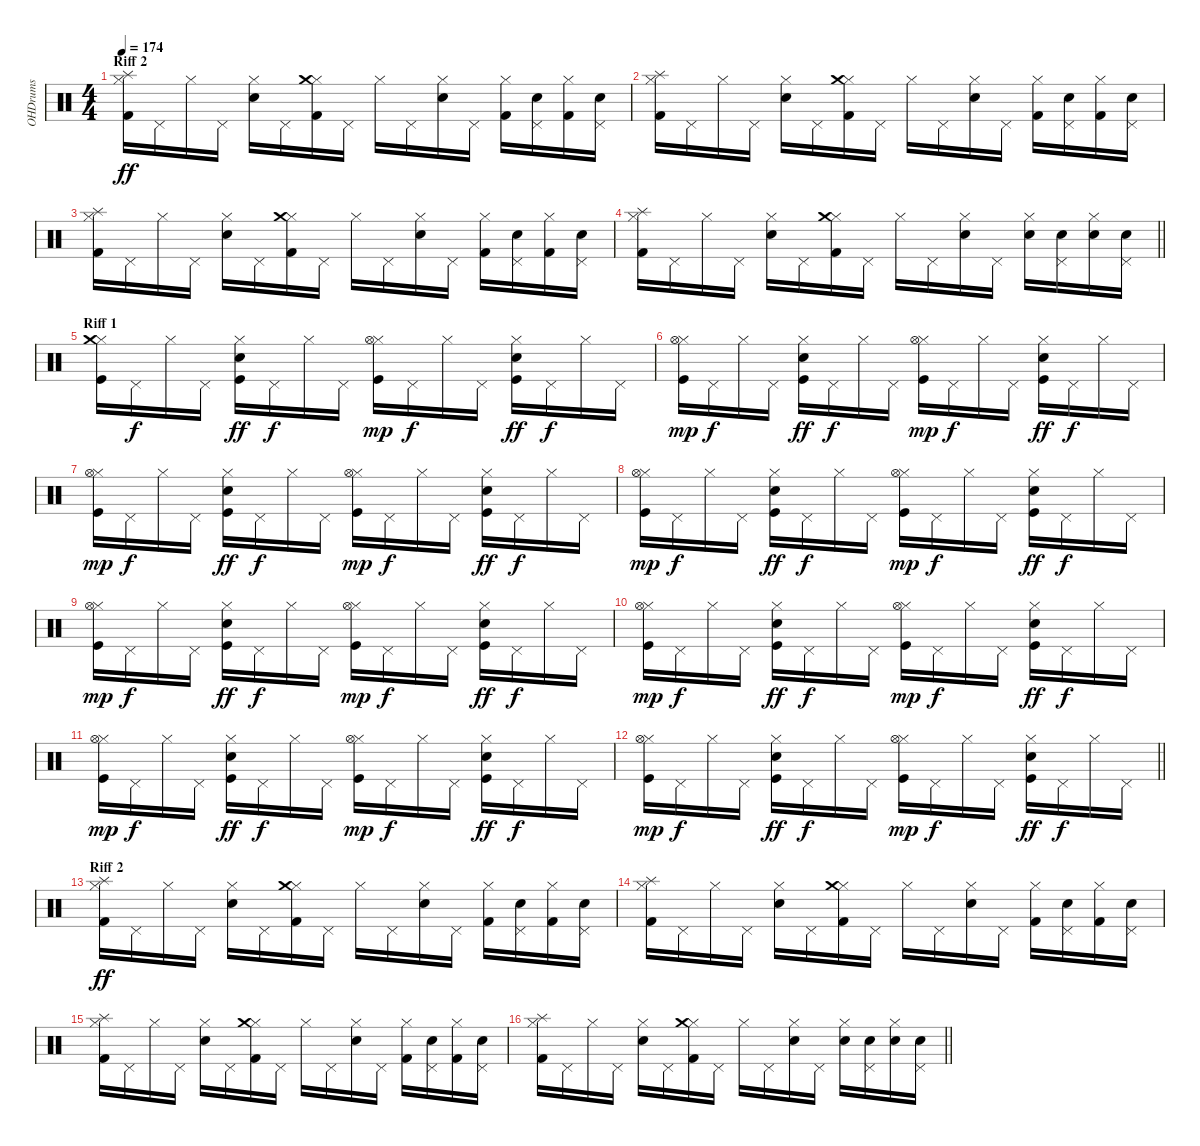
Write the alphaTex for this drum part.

\track ("OHDrums" "OHDrums") {instrument percussion}
\staff {score}
\articulation defaults
\ts (4 4)
\section ("" "Riff 2")
\tempo 174
\clef neutral
\ks c
("Kick (hit) 2" "Hi-Hat (closed)" "Splash (hit)").16{dy ff} "Pedal Hi-Hat (hit)".16 "Hi-Hat (closed)".16 "Pedal Hi-Hat (hit)".16 ("Electric Snare (hit)" "Hi-Hat (closed)").16 "Pedal Hi-Hat (hit)".16 ("Kick (hit) 2" "Hi-Hat (closed)" "Crash medium (hit)").16 "Pedal Hi-Hat (hit)".16 "Hi-Hat (closed)".16 "Pedal Hi-Hat (hit)".16 ("Electric Snare (hit)" "Hi-Hat (closed)").16 "Pedal Hi-Hat (hit)".16 ("Kick (hit) 2" "Hi-Hat (closed)").16 ("Electric Snare (hit)" "Pedal Hi-Hat (hit)").16 ("Kick (hit) 2" "Hi-Hat (closed)").16 ("Electric Snare (hit)" "Pedal Hi-Hat (hit)").16 |
("Kick (hit) 2" "Hi-Hat (closed)" "Splash (hit)").16 "Pedal Hi-Hat (hit)".16 "Hi-Hat (closed)".16 "Pedal Hi-Hat (hit)".16 ("Electric Snare (hit)" "Hi-Hat (closed)").16 "Pedal Hi-Hat (hit)".16 ("Kick (hit) 2" "Hi-Hat (closed)" "Crash medium (hit)").16 "Pedal Hi-Hat (hit)".16 "Hi-Hat (closed)".16 "Pedal Hi-Hat (hit)".16 ("Electric Snare (hit)" "Hi-Hat (closed)").16 "Pedal Hi-Hat (hit)".16 ("Kick (hit) 2" "Hi-Hat (closed)").16 ("Electric Snare (hit)" "Pedal Hi-Hat (hit)").16 ("Kick (hit) 2" "Hi-Hat (closed)").16 ("Electric Snare (hit)" "Pedal Hi-Hat (hit)").16 |
("Kick (hit) 2" "Hi-Hat (closed)" "Splash (hit)").16 "Pedal Hi-Hat (hit)".16 "Hi-Hat (closed)".16 "Pedal Hi-Hat (hit)".16 ("Electric Snare (hit)" "Hi-Hat (closed)").16 "Pedal Hi-Hat (hit)".16 ("Kick (hit) 2" "Hi-Hat (closed)" "Crash medium (hit)").16 "Pedal Hi-Hat (hit)".16 "Hi-Hat (closed)".16 "Pedal Hi-Hat (hit)".16 ("Electric Snare (hit)" "Hi-Hat (closed)").16 "Pedal Hi-Hat (hit)".16 ("Kick (hit) 2" "Hi-Hat (closed)").16 ("Electric Snare (hit)" "Pedal Hi-Hat (hit)").16 ("Kick (hit) 2" "Hi-Hat (closed)").16 ("Electric Snare (hit)" "Pedal Hi-Hat (hit)").16 |
\barLineRight lightlight
("Kick (hit) 2" "Hi-Hat (closed)" "Splash (hit)").16 "Pedal Hi-Hat (hit)".16 "Hi-Hat (closed)".16 "Pedal Hi-Hat (hit)".16 ("Electric Snare (hit)" "Hi-Hat (closed)").16 "Pedal Hi-Hat (hit)".16 ("Kick (hit) 2" "Hi-Hat (closed)" "Crash medium (hit)").16 "Pedal Hi-Hat (hit)".16 "Hi-Hat (closed)".16 "Pedal Hi-Hat (hit)".16 ("Electric Snare (hit)" "Hi-Hat (closed)").16 "Pedal Hi-Hat (hit)".16 ("Electric Snare (hit)" "Hi-Hat (closed)").16 ("Electric Snare (hit)" "Pedal Hi-Hat (hit)").16 ("Electric Snare (hit)" "Hi-Hat (closed)").16 ("Electric Snare (hit)" "Pedal Hi-Hat (hit)").16 |
\section ("" "Riff 1")
("Kick (hit)" "Hi-Hat (closed)" "Crash medium (hit)").16 "Pedal Hi-Hat (hit)".16{dy f} "Hi-Hat (closed)".16 "Pedal Hi-Hat (hit)".16 ("Kick (hit)" "Electric Snare (hit)" "Hi-Hat (closed)").16{dy ff} "Pedal Hi-Hat (hit)".16{dy f} "Hi-Hat (closed)".16 "Pedal Hi-Hat (hit)".16 ("Kick (hit)" "Hi-Hat (closed)" "Hi-Hat (open)").16{dy mp} "Pedal Hi-Hat (hit)".16{dy f} "Hi-Hat (closed)".16 "Pedal Hi-Hat (hit)".16 ("Kick (hit)" "Electric Snare (hit)" "Hi-Hat (closed)").16{dy ff} "Pedal Hi-Hat (hit)".16{dy f} "Hi-Hat (closed)".16 "Pedal Hi-Hat (hit)".16 |
("Kick (hit)" "Hi-Hat (closed)" "Hi-Hat (open)").16{dy mp} "Pedal Hi-Hat (hit)".16{dy f} "Hi-Hat (closed)".16 "Pedal Hi-Hat (hit)".16 ("Kick (hit)" "Electric Snare (hit)" "Hi-Hat (closed)").16{dy ff} "Pedal Hi-Hat (hit)".16{dy f} "Hi-Hat (closed)".16 "Pedal Hi-Hat (hit)".16 ("Kick (hit)" "Hi-Hat (closed)" "Hi-Hat (open)").16{dy mp} "Pedal Hi-Hat (hit)".16{dy f} "Hi-Hat (closed)".16 "Pedal Hi-Hat (hit)".16 ("Kick (hit)" "Electric Snare (hit)" "Hi-Hat (closed)").16{dy ff} "Pedal Hi-Hat (hit)".16{dy f} "Hi-Hat (closed)".16 "Pedal Hi-Hat (hit)".16 |
("Kick (hit)" "Hi-Hat (closed)" "Hi-Hat (open)").16{dy mp} "Pedal Hi-Hat (hit)".16{dy f} "Hi-Hat (closed)".16 "Pedal Hi-Hat (hit)".16 ("Kick (hit)" "Electric Snare (hit)" "Hi-Hat (closed)").16{dy ff} "Pedal Hi-Hat (hit)".16{dy f} "Hi-Hat (closed)".16 "Pedal Hi-Hat (hit)".16 ("Kick (hit)" "Hi-Hat (closed)" "Hi-Hat (open)").16{dy mp} "Pedal Hi-Hat (hit)".16{dy f} "Hi-Hat (closed)".16 "Pedal Hi-Hat (hit)".16 ("Kick (hit)" "Electric Snare (hit)" "Hi-Hat (closed)").16{dy ff} "Pedal Hi-Hat (hit)".16{dy f} "Hi-Hat (closed)".16 "Pedal Hi-Hat (hit)".16 |
("Kick (hit)" "Hi-Hat (closed)" "Hi-Hat (open)").16{dy mp} "Pedal Hi-Hat (hit)".16{dy f} "Hi-Hat (closed)".16 "Pedal Hi-Hat (hit)".16 ("Kick (hit)" "Electric Snare (hit)" "Hi-Hat (closed)").16{dy ff} "Pedal Hi-Hat (hit)".16{dy f} "Hi-Hat (closed)".16 "Pedal Hi-Hat (hit)".16 ("Kick (hit)" "Hi-Hat (closed)" "Hi-Hat (open)").16{dy mp} "Pedal Hi-Hat (hit)".16{dy f} "Hi-Hat (closed)".16 "Pedal Hi-Hat (hit)".16 ("Kick (hit)" "Electric Snare (hit)" "Hi-Hat (closed)").16{dy ff} "Pedal Hi-Hat (hit)".16{dy f} "Hi-Hat (closed)".16 "Pedal Hi-Hat (hit)".16 |
("Kick (hit)" "Hi-Hat (closed)" "Hi-Hat (open)").16{dy mp} "Pedal Hi-Hat (hit)".16{dy f} "Hi-Hat (closed)".16 "Pedal Hi-Hat (hit)".16 ("Kick (hit)" "Electric Snare (hit)" "Hi-Hat (closed)").16{dy ff} "Pedal Hi-Hat (hit)".16{dy f} "Hi-Hat (closed)".16 "Pedal Hi-Hat (hit)".16 ("Kick (hit)" "Hi-Hat (closed)" "Hi-Hat (open)").16{dy mp} "Pedal Hi-Hat (hit)".16{dy f} "Hi-Hat (closed)".16 "Pedal Hi-Hat (hit)".16 ("Kick (hit)" "Electric Snare (hit)" "Hi-Hat (closed)").16{dy ff} "Pedal Hi-Hat (hit)".16{dy f} "Hi-Hat (closed)".16 "Pedal Hi-Hat (hit)".16 |
("Kick (hit)" "Hi-Hat (closed)" "Hi-Hat (open)").16{dy mp} "Pedal Hi-Hat (hit)".16{dy f} "Hi-Hat (closed)".16 "Pedal Hi-Hat (hit)".16 ("Kick (hit)" "Electric Snare (hit)" "Hi-Hat (closed)").16{dy ff} "Pedal Hi-Hat (hit)".16{dy f} "Hi-Hat (closed)".16 "Pedal Hi-Hat (hit)".16 ("Kick (hit)" "Hi-Hat (closed)" "Hi-Hat (open)").16{dy mp} "Pedal Hi-Hat (hit)".16{dy f} "Hi-Hat (closed)".16 "Pedal Hi-Hat (hit)".16 ("Kick (hit)" "Electric Snare (hit)" "Hi-Hat (closed)").16{dy ff} "Pedal Hi-Hat (hit)".16{dy f} "Hi-Hat (closed)".16 "Pedal Hi-Hat (hit)".16 |
("Kick (hit)" "Hi-Hat (closed)" "Hi-Hat (open)").16{dy mp} "Pedal Hi-Hat (hit)".16{dy f} "Hi-Hat (closed)".16 "Pedal Hi-Hat (hit)".16 ("Kick (hit)" "Electric Snare (hit)" "Hi-Hat (closed)").16{dy ff} "Pedal Hi-Hat (hit)".16{dy f} "Hi-Hat (closed)".16 "Pedal Hi-Hat (hit)".16 ("Kick (hit)" "Hi-Hat (closed)" "Hi-Hat (open)").16{dy mp} "Pedal Hi-Hat (hit)".16{dy f} "Hi-Hat (closed)".16 "Pedal Hi-Hat (hit)".16 ("Kick (hit)" "Electric Snare (hit)" "Hi-Hat (closed)").16{dy ff} "Pedal Hi-Hat (hit)".16{dy f} "Hi-Hat (closed)".16 "Pedal Hi-Hat (hit)".16 |
\barLineRight lightlight
("Kick (hit)" "Hi-Hat (closed)" "Hi-Hat (open)").16{dy mp} "Pedal Hi-Hat (hit)".16{dy f} "Hi-Hat (closed)".16 "Pedal Hi-Hat (hit)".16 ("Kick (hit)" "Electric Snare (hit)" "Hi-Hat (closed)").16{dy ff} "Pedal Hi-Hat (hit)".16{dy f} "Hi-Hat (closed)".16 "Pedal Hi-Hat (hit)".16 ("Kick (hit)" "Hi-Hat (closed)" "Hi-Hat (open)").16{dy mp} "Pedal Hi-Hat (hit)".16{dy f} "Hi-Hat (closed)".16 "Pedal Hi-Hat (hit)".16 ("Kick (hit)" "Electric Snare (hit)" "Hi-Hat (closed)").16{dy ff} "Pedal Hi-Hat (hit)".16{dy f} "Hi-Hat (closed)".16 "Pedal Hi-Hat (hit)".16 |
\section ("" "Riff 2")
("Kick (hit) 2" "Hi-Hat (closed)" "Splash (hit)").16{dy ff} "Pedal Hi-Hat (hit)".16 "Hi-Hat (closed)".16 "Pedal Hi-Hat (hit)".16 ("Electric Snare (hit)" "Hi-Hat (closed)").16 "Pedal Hi-Hat (hit)".16 ("Kick (hit) 2" "Hi-Hat (closed)" "Crash medium (hit)").16 "Pedal Hi-Hat (hit)".16 "Hi-Hat (closed)".16 "Pedal Hi-Hat (hit)".16 ("Electric Snare (hit)" "Hi-Hat (closed)").16 "Pedal Hi-Hat (hit)".16 ("Kick (hit) 2" "Hi-Hat (closed)").16 ("Electric Snare (hit)" "Pedal Hi-Hat (hit)").16 ("Kick (hit) 2" "Hi-Hat (closed)").16 ("Electric Snare (hit)" "Pedal Hi-Hat (hit)").16 |
("Kick (hit) 2" "Hi-Hat (closed)" "Splash (hit)").16 "Pedal Hi-Hat (hit)".16 "Hi-Hat (closed)".16 "Pedal Hi-Hat (hit)".16 ("Electric Snare (hit)" "Hi-Hat (closed)").16 "Pedal Hi-Hat (hit)".16 ("Kick (hit) 2" "Hi-Hat (closed)" "Crash medium (hit)").16 "Pedal Hi-Hat (hit)".16 "Hi-Hat (closed)".16 "Pedal Hi-Hat (hit)".16 ("Electric Snare (hit)" "Hi-Hat (closed)").16 "Pedal Hi-Hat (hit)".16 ("Kick (hit) 2" "Hi-Hat (closed)").16 ("Electric Snare (hit)" "Pedal Hi-Hat (hit)").16 ("Kick (hit) 2" "Hi-Hat (closed)").16 ("Electric Snare (hit)" "Pedal Hi-Hat (hit)").16 |
("Kick (hit) 2" "Hi-Hat (closed)" "Splash (hit)").16 "Pedal Hi-Hat (hit)".16 "Hi-Hat (closed)".16 "Pedal Hi-Hat (hit)".16 ("Electric Snare (hit)" "Hi-Hat (closed)").16 "Pedal Hi-Hat (hit)".16 ("Kick (hit) 2" "Hi-Hat (closed)" "Crash medium (hit)").16 "Pedal Hi-Hat (hit)".16 "Hi-Hat (closed)".16 "Pedal Hi-Hat (hit)".16 ("Electric Snare (hit)" "Hi-Hat (closed)").16 "Pedal Hi-Hat (hit)".16 ("Kick (hit) 2" "Hi-Hat (closed)").16 ("Electric Snare (hit)" "Pedal Hi-Hat (hit)").16 ("Kick (hit) 2" "Hi-Hat (closed)").16 ("Electric Snare (hit)" "Pedal Hi-Hat (hit)").16 |
\barLineRight lightlight
("Kick (hit) 2" "Hi-Hat (closed)" "Splash (hit)").16 "Pedal Hi-Hat (hit)".16 "Hi-Hat (closed)".16 "Pedal Hi-Hat (hit)".16 ("Electric Snare (hit)" "Hi-Hat (closed)").16 "Pedal Hi-Hat (hit)".16 ("Kick (hit) 2" "Hi-Hat (closed)" "Crash medium (hit)").16 "Pedal Hi-Hat (hit)".16 "Hi-Hat (closed)".16 "Pedal Hi-Hat (hit)".16 ("Electric Snare (hit)" "Hi-Hat (closed)").16 "Pedal Hi-Hat (hit)".16 ("Electric Snare (hit)" "Hi-Hat (closed)").16 ("Electric Snare (hit)" "Pedal Hi-Hat (hit)").16 ("Electric Snare (hit)" "Hi-Hat (closed)").16 ("Electric Snare (hit)" "Pedal Hi-Hat (hit)").16
